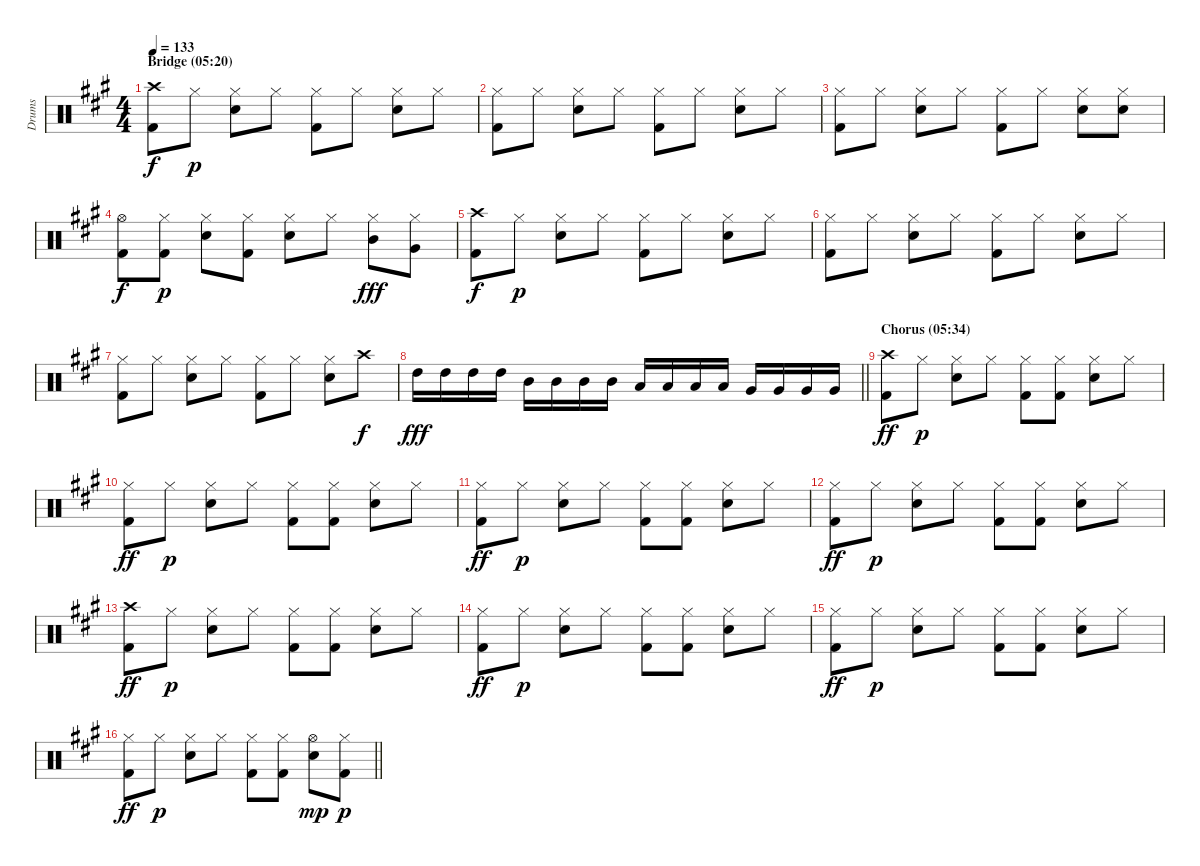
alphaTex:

\track ("Drums" "Drums") {instrument percussion}
\staff {score}
\articulation defaults
\ts (4 4)
\section ("" "Bridge (05:20)")
\tempo 133
\clef neutral
\ks a
("Crash high (hit)" "Kick (hit) 2").8{dy f} "Hi-Hat (closed)".8{dy p} ("Hi-Hat (closed)" "Snare (hit) 2").8 "Hi-Hat (closed)".8 ("Hi-Hat (closed)" "Kick (hit) 2").8 "Hi-Hat (closed)".8 ("Hi-Hat (closed)" "Snare (hit) 2").8 "Hi-Hat (closed)".8 |
("Hi-Hat (closed)" "Kick (hit) 2").8 "Hi-Hat (closed)".8 ("Hi-Hat (closed)" "Snare (hit) 2").8 "Hi-Hat (closed)".8 ("Hi-Hat (closed)" "Kick (hit) 2").8 "Hi-Hat (closed)".8 ("Hi-Hat (closed)" "Snare (hit) 2").8 "Hi-Hat (closed)".8 |
("Hi-Hat (closed)" "Kick (hit) 2").8 "Hi-Hat (closed)".8 ("Hi-Hat (closed)" "Snare (hit) 2").8 "Hi-Hat (closed)".8 ("Hi-Hat (closed)" "Kick (hit) 2").8 "Hi-Hat (closed)".8 ("Hi-Hat (closed)" "Snare (hit) 2").8 ("Hi-Hat (closed)" "Snare (hit) 2").8 |
("Hi-Hat (open)" "Kick (hit) 2").8{dy f} ("Hi-Hat (closed)" "Kick (hit) 2").8{dy p} ("Hi-Hat (closed)" "Snare (hit) 2").8 ("Hi-Hat (closed)" "Kick (hit) 2").8 ("Hi-Hat (closed)" "Snare (hit) 2").8 "Hi-Hat (closed)".8 ("Hi-Hat (closed)" "Mid Tom (hit)").8{dy fff} ("Hi-Hat (closed)" "Very Low Tom (hit)").8 |
("Crash high (hit)" "Kick (hit) 2").8{dy f} "Hi-Hat (closed)".8{dy p} ("Hi-Hat (closed)" "Snare (hit) 2").8 "Hi-Hat (closed)".8 ("Hi-Hat (closed)" "Kick (hit) 2").8 "Hi-Hat (closed)".8 ("Hi-Hat (closed)" "Snare (hit) 2").8 "Hi-Hat (closed)".8 |
("Hi-Hat (closed)" "Kick (hit) 2").8 "Hi-Hat (closed)".8 ("Hi-Hat (closed)" "Snare (hit) 2").8 "Hi-Hat (closed)".8 ("Hi-Hat (closed)" "Kick (hit) 2").8 "Hi-Hat (closed)".8 ("Hi-Hat (closed)" "Snare (hit) 2").8 "Hi-Hat (closed)".8 |
("Hi-Hat (closed)" "Kick (hit) 2").8 "Hi-Hat (closed)".8 ("Hi-Hat (closed)" "Snare (hit) 2").8 "Hi-Hat (closed)".8 ("Hi-Hat (closed)" "Kick (hit) 2").8 "Hi-Hat (closed)".8 ("Hi-Hat (closed)" "Snare (hit) 2").8 "Crash high (hit)".8{dy f} |
\barLineRight lightlight "High Tom (hit)".16{dy fff} "High Tom (hit)".16 "High Tom (hit)".16 "High Tom (hit)".16 "Mid Tom (hit)".16 "Mid Tom (hit)".16 "Mid Tom (hit)".16 "Mid Tom (hit)".16 "Low Tom (hit)".16 "Low Tom (hit)".16 "Low Tom (hit)".16 "Low Tom (hit)".16 "Very Low Tom (hit)".16 "Very Low Tom (hit)".16 "Very Low Tom (hit)".16 "Very Low Tom (hit)".16
|
\section ("" "Chorus (05:34)")
("Crash high (hit)" "Kick (hit) 2").8{dy ff} "Hi-Hat (closed)".8{dy p} ("Hi-Hat (closed)" "Snare (hit) 2").8 "Hi-Hat (closed)".8 ("Hi-Hat (closed)" "Kick (hit) 2").8 ("Hi-Hat (closed)" "Kick (hit) 2").8 ("Hi-Hat (closed)" "Snare (hit) 2").8 "Hi-Hat (closed)".8 |
("Hi-Hat (closed)" "Kick (hit) 2").8{dy ff} "Hi-Hat (closed)".8{dy p} ("Hi-Hat (closed)" "Snare (hit) 2").8 "Hi-Hat (closed)".8 ("Hi-Hat (closed)" "Kick (hit) 2").8 ("Hi-Hat (closed)" "Kick (hit) 2").8 ("Hi-Hat (closed)" "Snare (hit) 2").8 "Hi-Hat (closed)".8 |
("Hi-Hat (closed)" "Kick (hit) 2").8{dy ff} "Hi-Hat (closed)".8{dy p} ("Hi-Hat (closed)" "Snare (hit) 2").8 "Hi-Hat (closed)".8 ("Hi-Hat (closed)" "Kick (hit) 2").8 ("Hi-Hat (closed)" "Kick (hit) 2").8 ("Hi-Hat (closed)" "Snare (hit) 2").8 "Hi-Hat (closed)".8 |
("Hi-Hat (closed)" "Kick (hit) 2").8{dy ff} "Hi-Hat (closed)".8{dy p} ("Hi-Hat (closed)" "Snare (hit) 2").8 "Hi-Hat (closed)".8 ("Hi-Hat (closed)" "Kick (hit) 2").8 ("Hi-Hat (closed)" "Kick (hit) 2").8 ("Hi-Hat (closed)" "Snare (hit) 2").8 "Hi-Hat (closed)".8 |
("Crash high (hit)" "Kick (hit) 2").8{dy ff} "Hi-Hat (closed)".8{dy p} ("Hi-Hat (closed)" "Snare (hit) 2").8 "Hi-Hat (closed)".8 ("Hi-Hat (closed)" "Kick (hit) 2").8 ("Hi-Hat (closed)" "Kick (hit) 2").8 ("Hi-Hat (closed)" "Snare (hit) 2").8 "Hi-Hat (closed)".8 |
("Hi-Hat (closed)" "Kick (hit) 2").8{dy ff} "Hi-Hat (closed)".8{dy p} ("Hi-Hat (closed)" "Snare (hit) 2").8 "Hi-Hat (closed)".8 ("Hi-Hat (closed)" "Kick (hit) 2").8 ("Hi-Hat (closed)" "Kick (hit) 2").8 ("Hi-Hat (closed)" "Snare (hit) 2").8 "Hi-Hat (closed)".8 |
("Hi-Hat (closed)" "Kick (hit) 2").8{dy ff} "Hi-Hat (closed)".8{dy p} ("Hi-Hat (closed)" "Snare (hit) 2").8 "Hi-Hat (closed)".8 ("Hi-Hat (closed)" "Kick (hit) 2").8 ("Hi-Hat (closed)" "Kick (hit) 2").8 ("Hi-Hat (closed)" "Snare (hit) 2").8 "Hi-Hat (closed)".8 |
\barLineRight lightlight
("Hi-Hat (closed)" "Kick (hit) 2").8{dy ff} "Hi-Hat (closed)".8{dy p} ("Hi-Hat (closed)" "Snare (hit) 2").8 "Hi-Hat (closed)".8 ("Hi-Hat (closed)" "Kick (hit) 2").8 ("Hi-Hat (closed)" "Kick (hit) 2").8 ("Hi-Hat (open)" "Snare (hit) 2").8{dy mp} ("Hi-Hat (closed)" "Kick (hit) 2").8{dy p}
